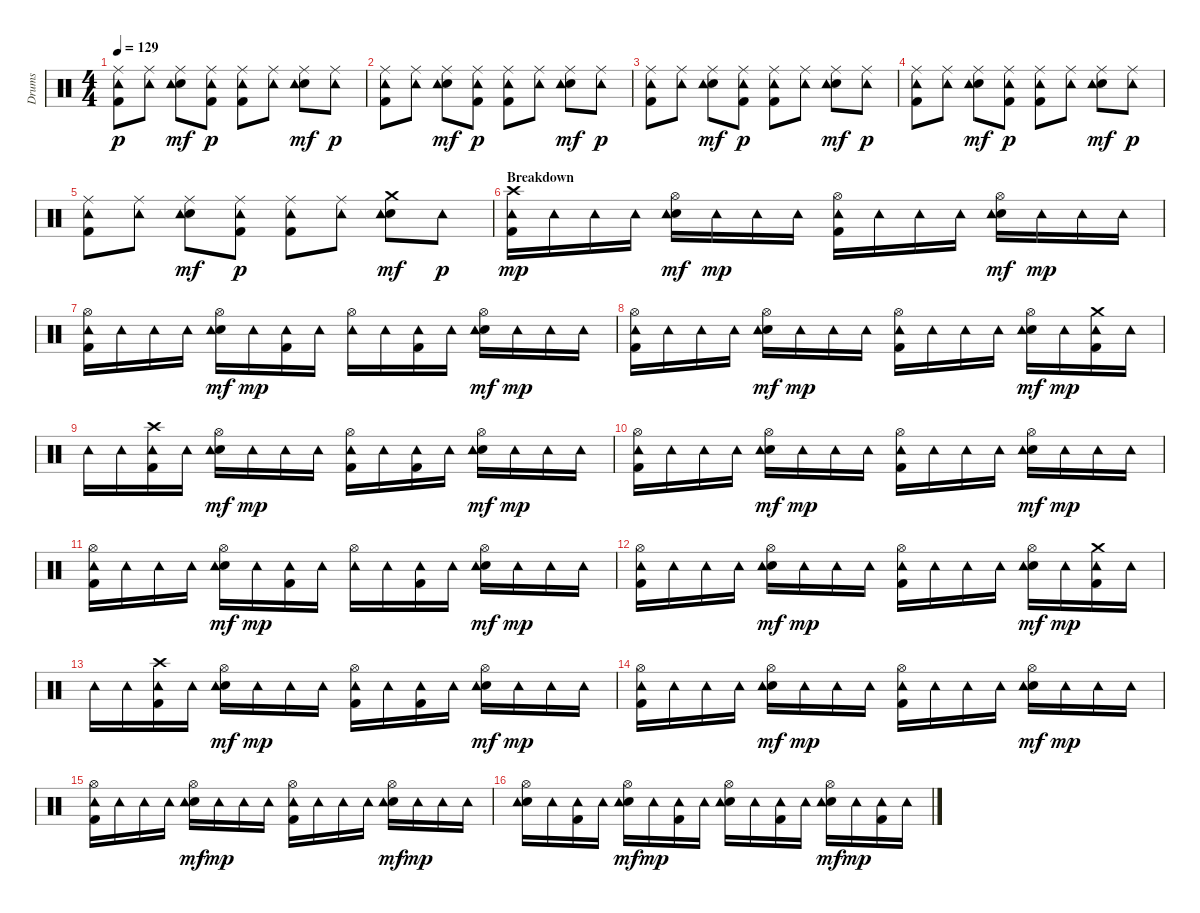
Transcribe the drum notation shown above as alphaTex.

\track ("Drums" "Drums") {instrument percussion}
\staff {score}
\articulation defaults
\ts (4 4)
\tempo 129
\clef neutral
\ks c
("Kick (hit) 2" "Ride (middle)" "Tambourine (hit)").8{dy p} ("Ride (middle)" "Tambourine (hit)").8 ("Ride (middle)" "Snare (hit) 2" "Tambourine (hit)").8{dy mf} ("Kick (hit) 2" "Ride (middle)" "Tambourine (hit)").8{dy p} ("Kick (hit) 2" "Ride (middle)" "Tambourine (hit)").8 ("Ride (middle)" "Tambourine (hit)").8 ("Ride (middle)" "Snare (hit) 2" "Tambourine (hit)").8{dy mf} ("Ride (middle)" "Tambourine (hit)").8{dy p} |
("Kick (hit) 2" "Ride (middle)" "Tambourine (hit)").8 ("Ride (middle)" "Tambourine (hit)").8 ("Ride (middle)" "Snare (hit) 2" "Tambourine (hit)").8{dy mf} ("Kick (hit) 2" "Ride (middle)" "Tambourine (hit)").8{dy p} ("Kick (hit) 2" "Ride (middle)" "Tambourine (hit)").8 ("Ride (middle)" "Tambourine (hit)").8 ("Ride (middle)" "Snare (hit) 2" "Tambourine (hit)").8{dy mf} ("Ride (middle)" "Tambourine (hit)").8{dy p} |
("Kick (hit) 2" "Ride (middle)" "Tambourine (hit)").8 ("Ride (middle)" "Tambourine (hit)").8 ("Ride (middle)" "Snare (hit) 2" "Tambourine (hit)").8{dy mf} ("Kick (hit) 2" "Ride (middle)" "Tambourine (hit)").8{dy p} ("Kick (hit) 2" "Ride (middle)" "Tambourine (hit)").8 ("Ride (middle)" "Tambourine (hit)").8 ("Ride (middle)" "Snare (hit) 2" "Tambourine (hit)").8{dy mf} ("Ride (middle)" "Tambourine (hit)").8{dy p} |
("Kick (hit) 2" "Ride (middle)" "Tambourine (hit)").8 ("Ride (middle)" "Tambourine (hit)").8 ("Ride (middle)" "Snare (hit) 2" "Tambourine (hit)").8{dy mf} ("Kick (hit) 2" "Ride (middle)" "Tambourine (hit)").8{dy p} ("Kick (hit) 2" "Ride (middle)" "Tambourine (hit)").8 ("Ride (middle)" "Tambourine (hit)").8 ("Ride (middle)" "Snare (hit) 2" "Tambourine (hit)").8{dy mf} ("Ride (middle)" "Tambourine (hit)").8{dy p} |
("Kick (hit) 2" "Ride (middle)" "Tambourine (hit)").8 ("Ride (middle)" "Tambourine (hit)").8 ("Ride (middle)" "Snare (hit) 2" "Tambourine (hit)").8{dy mf} ("Kick (hit) 2" "Ride (middle)" "Tambourine (hit)").8{dy p} ("Kick (hit) 2" "Ride (middle)" "Tambourine (hit)").8 ("Ride (middle)" "Tambourine (hit)").8 ("Crash medium (hit)" "Snare (hit) 2" "Tambourine (hit)").8{dy mf} "Tambourine (hit)".8{dy p} |
\section ("" "Breakdown")
("Kick (hit) 2" "Crash high (hit)" "Tambourine (hit)").16{dy mp} "Tambourine (hit)".16 "Tambourine (hit)".16 "Tambourine (hit)".16 ("Snare (hit) 2" "Hi-Hat (open)" "Tambourine (hit)").16{dy mf} "Tambourine (hit)".16{dy mp} "Tambourine (hit)".16 "Tambourine (hit)".16 ("Kick (hit) 2" "Hi-Hat (open)" "Tambourine (hit)").16 "Tambourine (hit)".16 "Tambourine (hit)".16 "Tambourine (hit)".16 ("Snare (hit) 2" "Hi-Hat (open)" "Tambourine (hit)").16{dy mf} "Tambourine (hit)".16{dy mp} "Tambourine (hit)".16 "Tambourine (hit)".16 |
("Kick (hit) 2" "Hi-Hat (open)" "Tambourine (hit)").16 "Tambourine (hit)".16 "Tambourine (hit)".16 "Tambourine (hit)".16 ("Snare (hit) 2" "Hi-Hat (open)" "Tambourine (hit)").16{dy mf} "Tambourine (hit)".16{dy mp} ("Kick (hit) 2" "Tambourine (hit)").16 "Tambourine (hit)".16 ("Hi-Hat (open)" "Tambourine (hit)").16 "Tambourine (hit)".16 ("Kick (hit) 2" "Tambourine (hit)").16 "Tambourine (hit)".16 ("Snare (hit) 2" "Hi-Hat (open)" "Tambourine (hit)").16{dy mf} "Tambourine (hit)".16{dy mp} "Tambourine (hit)".16 "Tambourine (hit)".16 |
("Kick (hit) 2" "Hi-Hat (open)" "Tambourine (hit)").16 "Tambourine (hit)".16 "Tambourine (hit)".16 "Tambourine (hit)".16 ("Snare (hit) 2" "Hi-Hat (open)" "Tambourine (hit)").16{dy mf} "Tambourine (hit)".16{dy mp} "Tambourine (hit)".16 "Tambourine (hit)".16 ("Kick (hit) 2" "Hi-Hat (open)" "Tambourine (hit)").16 "Tambourine (hit)".16 "Tambourine (hit)".16 "Tambourine (hit)".16 ("Snare (hit) 2" "Hi-Hat (open)" "Tambourine (hit)").16{dy mf} "Tambourine (hit)".16{dy mp} ("Kick (hit) 2" "Crash medium (hit)" "Tambourine (hit)").16 "Tambourine (hit)".16 |
"Tambourine (hit)".16 "Tambourine (hit)".16 ("Kick (hit) 2" "Crash high (hit)" "Tambourine (hit)").16 "Tambourine (hit)".16 ("Snare (hit) 2" "Hi-Hat (open)" "Tambourine (hit)").16{dy mf} "Tambourine (hit)".16{dy mp} "Tambourine (hit)".16 "Tambourine (hit)".16 ("Kick (hit) 2" "Hi-Hat (open)" "Tambourine (hit)").16 "Tambourine (hit)".16 ("Kick (hit) 2" "Tambourine (hit)").16 "Tambourine (hit)".16 ("Snare (hit) 2" "Hi-Hat (open)" "Tambourine (hit)").16{dy mf} "Tambourine (hit)".16{dy mp} "Tambourine (hit)".16 "Tambourine (hit)".16 |
("Kick (hit) 2" "Hi-Hat (open)" "Tambourine (hit)").16 "Tambourine (hit)".16 "Tambourine (hit)".16 "Tambourine (hit)".16 ("Snare (hit) 2" "Hi-Hat (open)" "Tambourine (hit)").16{dy mf} "Tambourine (hit)".16{dy mp} "Tambourine (hit)".16 "Tambourine (hit)".16 ("Kick (hit) 2" "Hi-Hat (open)" "Tambourine (hit)").16 "Tambourine (hit)".16 "Tambourine (hit)".16 "Tambourine (hit)".16 ("Snare (hit) 2" "Hi-Hat (open)" "Tambourine (hit)").16{dy mf} "Tambourine (hit)".16{dy mp} "Tambourine (hit)".16 "Tambourine (hit)".16 |
("Kick (hit) 2" "Hi-Hat (open)" "Tambourine (hit)").16 "Tambourine (hit)".16 "Tambourine (hit)".16 "Tambourine (hit)".16 ("Snare (hit) 2" "Hi-Hat (open)" "Tambourine (hit)").16{dy mf} "Tambourine (hit)".16{dy mp} ("Kick (hit) 2" "Tambourine (hit)").16 "Tambourine (hit)".16 ("Hi-Hat (open)" "Tambourine (hit)").16 "Tambourine (hit)".16 ("Kick (hit) 2" "Tambourine (hit)").16 "Tambourine (hit)".16 ("Snare (hit) 2" "Hi-Hat (open)" "Tambourine (hit)").16{dy mf} "Tambourine (hit)".16{dy mp} "Tambourine (hit)".16 "Tambourine (hit)".16 |
("Kick (hit) 2" "Hi-Hat (open)" "Tambourine (hit)").16 "Tambourine (hit)".16 "Tambourine (hit)".16 "Tambourine (hit)".16 ("Snare (hit) 2" "Hi-Hat (open)" "Tambourine (hit)").16{dy mf} "Tambourine (hit)".16{dy mp} "Tambourine (hit)".16 "Tambourine (hit)".16 ("Kick (hit) 2" "Hi-Hat (open)" "Tambourine (hit)").16 "Tambourine (hit)".16 "Tambourine (hit)".16 "Tambourine (hit)".16 ("Snare (hit) 2" "Hi-Hat (open)" "Tambourine (hit)").16{dy mf} "Tambourine (hit)".16{dy mp} ("Kick (hit) 2" "Crash medium (hit)" "Tambourine (hit)").16 "Tambourine (hit)".16 |
"Tambourine (hit)".16 "Tambourine (hit)".16 ("Kick (hit) 2" "Crash high (hit)" "Tambourine (hit)").16 "Tambourine (hit)".16 ("Snare (hit) 2" "Hi-Hat (open)" "Tambourine (hit)").16{dy mf} "Tambourine (hit)".16{dy mp} "Tambourine (hit)".16 "Tambourine (hit)".16 ("Kick (hit) 2" "Hi-Hat (open)" "Tambourine (hit)").16 "Tambourine (hit)".16 ("Kick (hit) 2" "Tambourine (hit)").16 "Tambourine (hit)".16 ("Snare (hit) 2" "Hi-Hat (open)" "Tambourine (hit)").16{dy mf} "Tambourine (hit)".16{dy mp} "Tambourine (hit)".16 "Tambourine (hit)".16 |
("Kick (hit) 2" "Hi-Hat (open)" "Tambourine (hit)").16 "Tambourine (hit)".16 "Tambourine (hit)".16 "Tambourine (hit)".16 ("Snare (hit) 2" "Hi-Hat (open)" "Tambourine (hit)").16{dy mf} "Tambourine (hit)".16{dy mp} "Tambourine (hit)".16 "Tambourine (hit)".16 ("Kick (hit) 2" "Hi-Hat (open)" "Tambourine (hit)").16 "Tambourine (hit)".16 "Tambourine (hit)".16 "Tambourine (hit)".16 ("Snare (hit) 2" "Hi-Hat (open)" "Tambourine (hit)").16{dy mf} "Tambourine (hit)".16{dy mp} "Tambourine (hit)".16 "Tambourine (hit)".16 |
("Kick (hit) 2" "Hi-Hat (open)" "Tambourine (hit)").16 "Tambourine (hit)".16 "Tambourine (hit)".16 "Tambourine (hit)".16 ("Snare (hit) 2" "Hi-Hat (open)" "Tambourine (hit)").16{dy mf} "Tambourine (hit)".16{dy mp} "Tambourine (hit)".16 "Tambourine (hit)".16 ("Kick (hit) 2" "Hi-Hat (open)" "Tambourine (hit)").16 "Tambourine (hit)".16 "Tambourine (hit)".16 "Tambourine (hit)".16 ("Snare (hit) 2" "Hi-Hat (open)" "Tambourine (hit)").16{dy mf} "Tambourine (hit)".16{dy mp} "Tambourine (hit)".16 "Tambourine (hit)".16 |
("Snare (hit) 2" "Hi-Hat (open)" "Tambourine (hit)").16 "Tambourine (hit)".16 ("Kick (hit) 2" "Tambourine (hit)").16 "Tambourine (hit)".16 ("Snare (hit) 2" "Hi-Hat (open)" "Tambourine (hit)").16{dy mf} "Tambourine (hit)".16{dy mp} ("Kick (hit) 2" "Tambourine (hit)").16 "Tambourine (hit)".16 ("Snare (hit) 2" "Hi-Hat (open)" "Tambourine (hit)").16 "Tambourine (hit)".16 ("Kick (hit) 2" "Tambourine (hit)").16 "Tambourine (hit)".16 ("Snare (hit) 2" "Hi-Hat (open)" "Tambourine (hit)").16{dy mf} "Tambourine (hit)".16{dy mp} ("Kick (hit) 2" "Tambourine (hit)").16 "Tambourine (hit)".16
